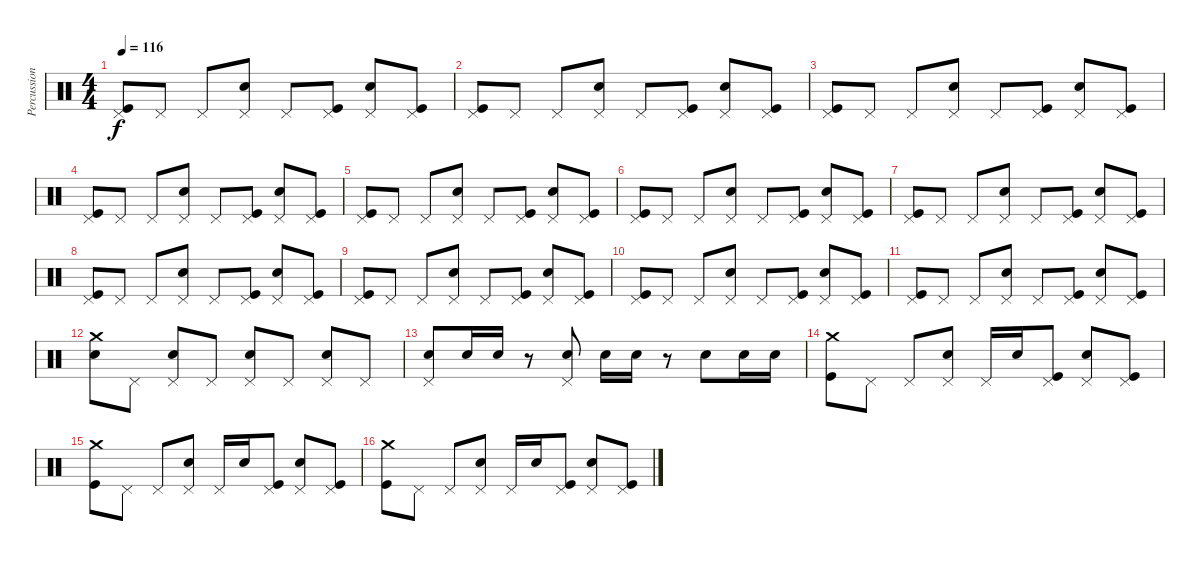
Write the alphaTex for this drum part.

\track ("Percussions" "Percussion") {instrument percussion}
\staff {score}
\articulation defaults
\ts (4 4)
\tempo 116
\clef neutral
\ks c
("Pedal Hi-Hat (hit)" "Kick (hit)").8{dy f} "Pedal Hi-Hat (hit)".8 "Pedal Hi-Hat (hit)".8 ("Pedal Hi-Hat (hit)" "Snare (hit) 2").8 "Pedal Hi-Hat (hit)".8 ("Pedal Hi-Hat (hit)" "Kick (hit)").8 ("Pedal Hi-Hat (hit)" "Snare (hit) 2").8 ("Pedal Hi-Hat (hit)" "Kick (hit)").8 |
("Pedal Hi-Hat (hit)" "Kick (hit)").8 "Pedal Hi-Hat (hit)".8 "Pedal Hi-Hat (hit)".8 ("Pedal Hi-Hat (hit)" "Snare (hit) 2").8 "Pedal Hi-Hat (hit)".8 ("Pedal Hi-Hat (hit)" "Kick (hit)").8 ("Pedal Hi-Hat (hit)" "Snare (hit) 2").8 ("Pedal Hi-Hat (hit)" "Kick (hit)").8 |
("Pedal Hi-Hat (hit)" "Kick (hit)").8 "Pedal Hi-Hat (hit)".8 "Pedal Hi-Hat (hit)".8 ("Pedal Hi-Hat (hit)" "Snare (hit) 2").8 "Pedal Hi-Hat (hit)".8 ("Pedal Hi-Hat (hit)" "Kick (hit)").8 ("Pedal Hi-Hat (hit)" "Snare (hit) 2").8 ("Pedal Hi-Hat (hit)" "Kick (hit)").8 |
("Pedal Hi-Hat (hit)" "Kick (hit)").8 "Pedal Hi-Hat (hit)".8 "Pedal Hi-Hat (hit)".8 ("Pedal Hi-Hat (hit)" "Snare (hit) 2").8 "Pedal Hi-Hat (hit)".8 ("Pedal Hi-Hat (hit)" "Kick (hit)").8 ("Pedal Hi-Hat (hit)" "Snare (hit) 2").8 ("Pedal Hi-Hat (hit)" "Kick (hit)").8 |
("Pedal Hi-Hat (hit)" "Kick (hit)").8 "Pedal Hi-Hat (hit)".8 "Pedal Hi-Hat (hit)".8 ("Pedal Hi-Hat (hit)" "Snare (hit) 2").8 "Pedal Hi-Hat (hit)".8 ("Pedal Hi-Hat (hit)" "Kick (hit)").8 ("Pedal Hi-Hat (hit)" "Snare (hit) 2").8 ("Pedal Hi-Hat (hit)" "Kick (hit)").8 |
("Pedal Hi-Hat (hit)" "Kick (hit)").8 "Pedal Hi-Hat (hit)".8 "Pedal Hi-Hat (hit)".8 ("Pedal Hi-Hat (hit)" "Snare (hit) 2").8 "Pedal Hi-Hat (hit)".8 ("Pedal Hi-Hat (hit)" "Kick (hit)").8 ("Pedal Hi-Hat (hit)" "Snare (hit) 2").8 ("Pedal Hi-Hat (hit)" "Kick (hit)").8 |
("Pedal Hi-Hat (hit)" "Kick (hit)").8 "Pedal Hi-Hat (hit)".8 "Pedal Hi-Hat (hit)".8 ("Pedal Hi-Hat (hit)" "Snare (hit) 2").8 "Pedal Hi-Hat (hit)".8 ("Pedal Hi-Hat (hit)" "Kick (hit)").8 ("Pedal Hi-Hat (hit)" "Snare (hit) 2").8 ("Pedal Hi-Hat (hit)" "Kick (hit)").8 |
("Pedal Hi-Hat (hit)" "Kick (hit)").8 "Pedal Hi-Hat (hit)".8 "Pedal Hi-Hat (hit)".8 ("Pedal Hi-Hat (hit)" "Snare (hit) 2").8 "Pedal Hi-Hat (hit)".8 ("Pedal Hi-Hat (hit)" "Kick (hit)").8 ("Pedal Hi-Hat (hit)" "Snare (hit) 2").8 ("Pedal Hi-Hat (hit)" "Kick (hit)").8 |
("Pedal Hi-Hat (hit)" "Kick (hit)").8 "Pedal Hi-Hat (hit)".8 "Pedal Hi-Hat (hit)".8 ("Pedal Hi-Hat (hit)" "Snare (hit) 2").8 "Pedal Hi-Hat (hit)".8 ("Pedal Hi-Hat (hit)" "Kick (hit)").8 ("Pedal Hi-Hat (hit)" "Snare (hit) 2").8 ("Pedal Hi-Hat (hit)" "Kick (hit)").8 |
("Pedal Hi-Hat (hit)" "Kick (hit)").8 "Pedal Hi-Hat (hit)".8 "Pedal Hi-Hat (hit)".8 ("Pedal Hi-Hat (hit)" "Snare (hit) 2").8 "Pedal Hi-Hat (hit)".8 ("Pedal Hi-Hat (hit)" "Kick (hit)").8 ("Pedal Hi-Hat (hit)" "Snare (hit) 2").8 ("Pedal Hi-Hat (hit)" "Kick (hit)").8 |
("Pedal Hi-Hat (hit)" "Kick (hit)").8 "Pedal Hi-Hat (hit)".8 "Pedal Hi-Hat (hit)".8 ("Pedal Hi-Hat (hit)" "Snare (hit) 2").8 "Pedal Hi-Hat (hit)".8 ("Pedal Hi-Hat (hit)" "Kick (hit)").8 ("Pedal Hi-Hat (hit)" "Snare (hit) 2").8 ("Pedal Hi-Hat (hit)" "Kick (hit)").8 |
("Crash medium (hit)" "Snare (hit) 2").8 "Pedal Hi-Hat (hit)".8 ("Pedal Hi-Hat (hit)" "Snare (hit) 2").8 "Pedal Hi-Hat (hit)".8 ("Pedal Hi-Hat (hit)" "Snare (hit) 2").8 "Pedal Hi-Hat (hit)".8 ("Pedal Hi-Hat (hit)" "Snare (hit) 2").8 "Pedal Hi-Hat (hit)".8 |
("Pedal Hi-Hat (hit)" "Snare (hit) 2").8 "Snare (hit) 2".16 "Snare (hit) 2".16 r.8 ("Pedal Hi-Hat (hit)" "Snare (hit) 2").8 "Snare (hit) 2".16 "Snare (hit) 2".16 r.8 "Snare (hit) 2".8 "Snare (hit) 2".16 "Snare (hit) 2".16 |
("Crash medium (hit)" "Kick (hit)").8 "Pedal Hi-Hat (hit)".8 "Pedal Hi-Hat (hit)".8 ("Pedal Hi-Hat (hit)" "Snare (hit) 2").8 "Pedal Hi-Hat (hit)".16 "Snare (hit) 2".16 ("Pedal Hi-Hat (hit)" "Kick (hit)").8 ("Pedal Hi-Hat (hit)" "Snare (hit) 2").8 ("Pedal Hi-Hat (hit)" "Kick (hit)").8 |
("Crash medium (hit)" "Kick (hit)").8 "Pedal Hi-Hat (hit)".8 "Pedal Hi-Hat (hit)".8 ("Pedal Hi-Hat (hit)" "Snare (hit) 2").8 "Pedal Hi-Hat (hit)".16 "Snare (hit) 2".16 ("Pedal Hi-Hat (hit)" "Kick (hit)").8 ("Pedal Hi-Hat (hit)" "Snare (hit) 2").8 ("Pedal Hi-Hat (hit)" "Kick (hit)").8 |
("Crash medium (hit)" "Kick (hit)").8 "Pedal Hi-Hat (hit)".8 "Pedal Hi-Hat (hit)".8 ("Pedal Hi-Hat (hit)" "Snare (hit) 2").8 "Pedal Hi-Hat (hit)".16 "Snare (hit) 2".16 ("Pedal Hi-Hat (hit)" "Kick (hit)").8 ("Pedal Hi-Hat (hit)" "Snare (hit) 2").8 ("Pedal Hi-Hat (hit)" "Kick (hit)").8
